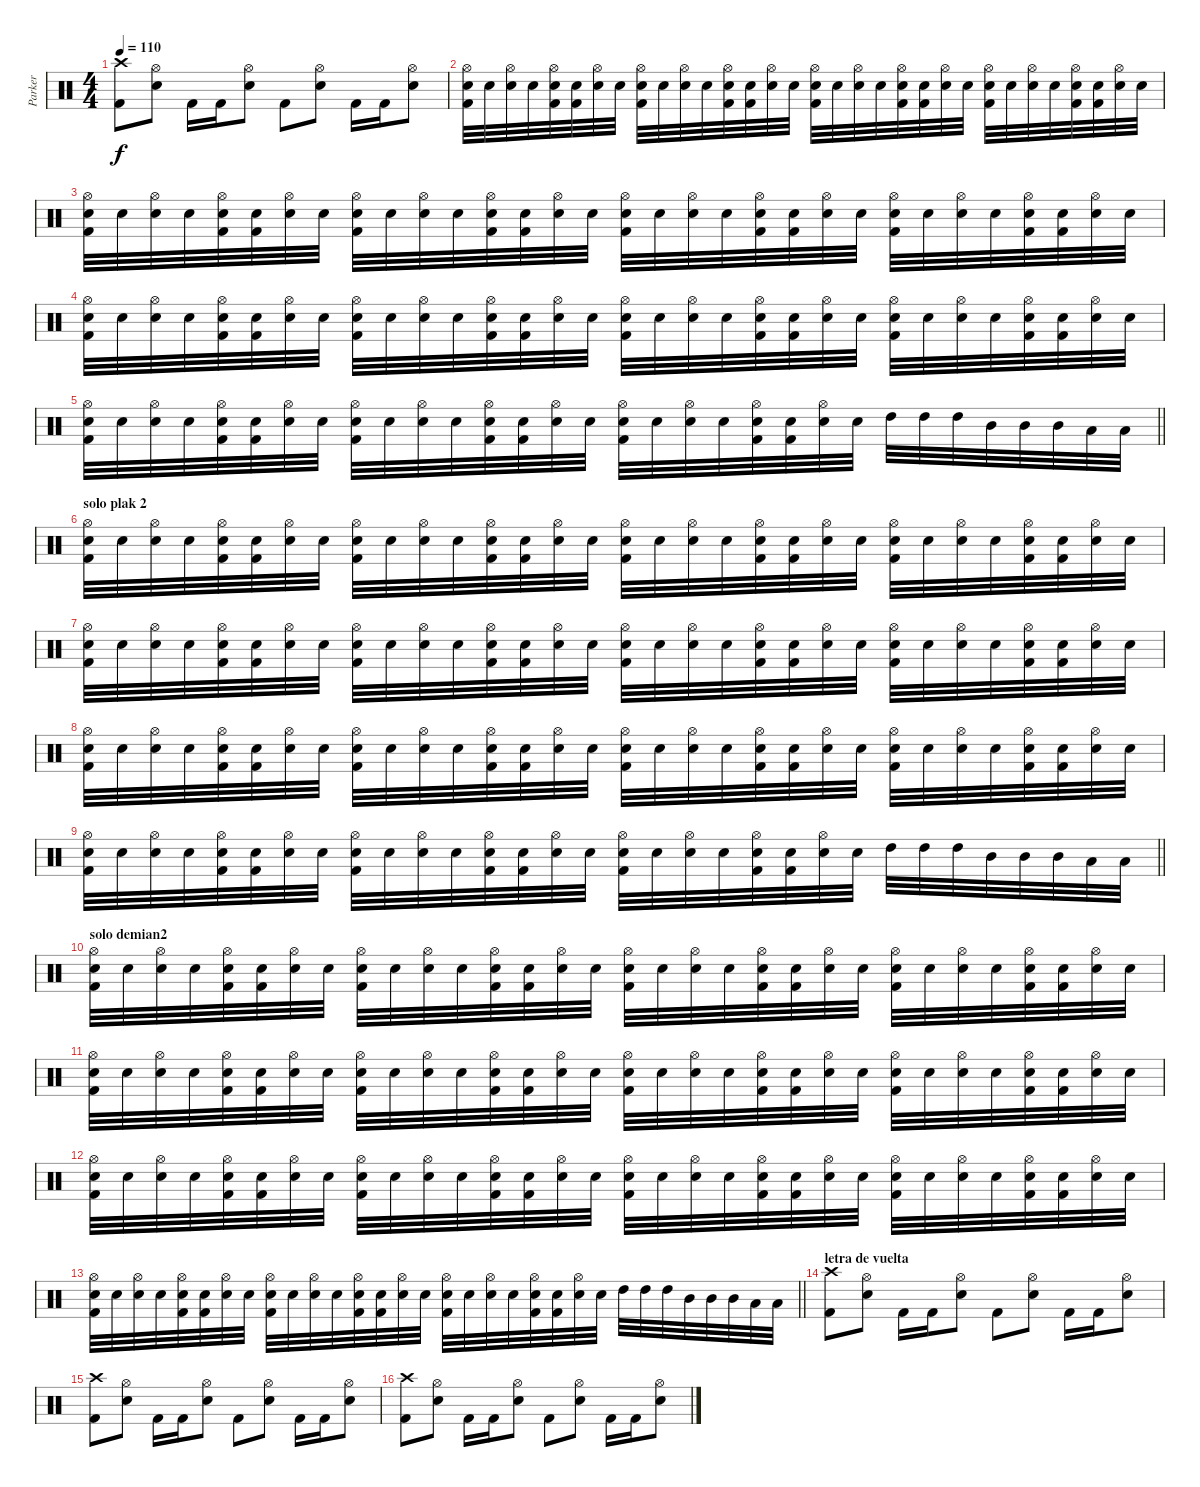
\track ("Parker" "Parker") {instrument percussion}
\staff {score}
\articulation defaults
\ts (4 4)
\tempo 110
\clef neutral
\ks c
("Crash high (hit)" "Kick (hit) 2").8{dy f} ("Hi-Hat (open)" "Electric Snare (hit)").8 "Kick (hit) 2".16 "Kick (hit) 2".16 ("Hi-Hat (open)" "Electric Snare (hit)").8 "Kick (hit) 2".8 ("Hi-Hat (open)" "Electric Snare (hit)").8 "Kick (hit) 2".16 "Kick (hit) 2".16 ("Hi-Hat (open)" "Electric Snare (hit)").8 |
("Hi-Hat (open)" "Kick (hit) 2" "Snare (hit)").32 "Snare (hit)".32 ("Hi-Hat (open)" "Electric Snare (hit)").32 "Snare (hit)".32 ("Hi-Hat (open)" "Kick (hit) 2" "Snare (hit)").32 ("Kick (hit) 2" "Snare (hit)").32 ("Hi-Hat (open)" "Electric Snare (hit)").32 "Snare (hit)".32 ("Hi-Hat (open)" "Kick (hit) 2" "Snare (hit)").32 "Snare (hit)".32 ("Hi-Hat (open)" "Electric Snare (hit)").32 "Snare (hit)".32 ("Hi-Hat (open)" "Kick (hit) 2" "Snare (hit)").32 ("Kick (hit) 2" "Snare (hit)").32 ("Hi-Hat (open)" "Electric Snare (hit)").32 "Snare (hit)".32 ("Hi-Hat (open)" "Kick (hit) 2" "Snare (hit)").32 "Snare (hit)".32 ("Hi-Hat (open)" "Electric Snare (hit)").32 "Snare (hit)".32 ("Hi-Hat (open)" "Kick (hit) 2" "Snare (hit)").32 ("Kick (hit) 2" "Snare (hit)").32 ("Hi-Hat (open)" "Electric Snare (hit)").32 "Snare (hit)".32 ("Hi-Hat (open)" "Kick (hit) 2" "Snare (hit)").32 "Snare (hit)".32 ("Hi-Hat (open)" "Electric Snare (hit)").32 "Snare (hit)".32 ("Hi-Hat (open)" "Kick (hit) 2" "Snare (hit)").32 ("Kick (hit) 2" "Snare (hit)").32 ("Hi-Hat (open)" "Electric Snare (hit)").32 "Snare (hit)".32 |
("Hi-Hat (open)" "Kick (hit) 2" "Snare (hit)").32 "Snare (hit)".32 ("Hi-Hat (open)" "Electric Snare (hit)").32 "Snare (hit)".32 ("Hi-Hat (open)" "Kick (hit) 2" "Snare (hit)").32 ("Kick (hit) 2" "Snare (hit)").32 ("Hi-Hat (open)" "Electric Snare (hit)").32 "Snare (hit)".32 ("Hi-Hat (open)" "Kick (hit) 2" "Snare (hit)").32 "Snare (hit)".32 ("Hi-Hat (open)" "Electric Snare (hit)").32 "Snare (hit)".32 ("Hi-Hat (open)" "Kick (hit) 2" "Snare (hit)").32 ("Kick (hit) 2" "Snare (hit)").32 ("Hi-Hat (open)" "Electric Snare (hit)").32 "Snare (hit)".32 ("Hi-Hat (open)" "Kick (hit) 2" "Snare (hit)").32 "Snare (hit)".32 ("Hi-Hat (open)" "Electric Snare (hit)").32 "Snare (hit)".32 ("Hi-Hat (open)" "Kick (hit) 2" "Snare (hit)").32 ("Kick (hit) 2" "Snare (hit)").32 ("Hi-Hat (open)" "Electric Snare (hit)").32 "Snare (hit)".32 ("Hi-Hat (open)" "Kick (hit) 2" "Snare (hit)").32 "Snare (hit)".32 ("Hi-Hat (open)" "Electric Snare (hit)").32 "Snare (hit)".32 ("Hi-Hat (open)" "Kick (hit) 2" "Snare (hit)").32 ("Kick (hit) 2" "Snare (hit)").32 ("Hi-Hat (open)" "Electric Snare (hit)").32 "Snare (hit)".32 |
("Hi-Hat (open)" "Kick (hit) 2" "Snare (hit)").32 "Snare (hit)".32 ("Hi-Hat (open)" "Electric Snare (hit)").32 "Snare (hit)".32 ("Hi-Hat (open)" "Kick (hit) 2" "Snare (hit)").32 ("Kick (hit) 2" "Snare (hit)").32 ("Hi-Hat (open)" "Electric Snare (hit)").32 "Snare (hit)".32 ("Hi-Hat (open)" "Kick (hit) 2" "Snare (hit)").32 "Snare (hit)".32 ("Hi-Hat (open)" "Electric Snare (hit)").32 "Snare (hit)".32 ("Hi-Hat (open)" "Kick (hit) 2" "Snare (hit)").32 ("Kick (hit) 2" "Snare (hit)").32 ("Hi-Hat (open)" "Electric Snare (hit)").32 "Snare (hit)".32 ("Hi-Hat (open)" "Kick (hit) 2" "Snare (hit)").32 "Snare (hit)".32 ("Hi-Hat (open)" "Electric Snare (hit)").32 "Snare (hit)".32 ("Hi-Hat (open)" "Kick (hit) 2" "Snare (hit)").32 ("Kick (hit) 2" "Snare (hit)").32 ("Hi-Hat (open)" "Electric Snare (hit)").32 "Snare (hit)".32 ("Hi-Hat (open)" "Kick (hit) 2" "Snare (hit)").32 "Snare (hit)".32 ("Hi-Hat (open)" "Electric Snare (hit)").32 "Snare (hit)".32 ("Hi-Hat (open)" "Kick (hit) 2" "Snare (hit)").32 ("Kick (hit) 2" "Snare (hit)").32 ("Hi-Hat (open)" "Electric Snare (hit)").32 "Snare (hit)".32 |
\barLineRight lightlight
("Hi-Hat (open)" "Kick (hit) 2" "Snare (hit)").32 "Snare (hit)".32 ("Hi-Hat (open)" "Electric Snare (hit)").32 "Snare (hit)".32 ("Hi-Hat (open)" "Kick (hit) 2" "Snare (hit)").32 ("Kick (hit) 2" "Snare (hit)").32 ("Hi-Hat (open)" "Electric Snare (hit)").32 "Snare (hit)".32 ("Hi-Hat (open)" "Kick (hit) 2" "Snare (hit)").32 "Snare (hit)".32 ("Hi-Hat (open)" "Electric Snare (hit)").32 "Snare (hit)".32 ("Hi-Hat (open)" "Kick (hit) 2" "Snare (hit)").32 ("Kick (hit) 2" "Snare (hit)").32 ("Hi-Hat (open)" "Electric Snare (hit)").32 "Snare (hit)".32 ("Hi-Hat (open)" "Kick (hit) 2" "Snare (hit)").32 "Snare (hit)".32 ("Hi-Hat (open)" "Electric Snare (hit)").32 "Snare (hit)".32 ("Hi-Hat (open)" "Kick (hit) 2" "Snare (hit)").32 ("Kick (hit) 2" "Snare (hit)").32 ("Hi-Hat (open)" "Electric Snare (hit)").32 "Snare (hit)".32 "High Tom (hit)".32 "High Tom (hit)".32 "High Tom (hit)".32 "Mid Tom (hit)".32 "Mid Tom (hit)".32 "Mid Tom (hit)".32 "Low Tom (hit)".32 "Low Tom (hit)".32 |
\section ("" "solo plak 2")
("Hi-Hat (open)" "Kick (hit) 2" "Snare (hit)").32 "Snare (hit)".32 ("Hi-Hat (open)" "Electric Snare (hit)").32 "Snare (hit)".32 ("Hi-Hat (open)" "Kick (hit) 2" "Snare (hit)").32 ("Kick (hit) 2" "Snare (hit)").32 ("Hi-Hat (open)" "Electric Snare (hit)").32 "Snare (hit)".32 ("Hi-Hat (open)" "Kick (hit) 2" "Snare (hit)").32 "Snare (hit)".32 ("Hi-Hat (open)" "Electric Snare (hit)").32 "Snare (hit)".32 ("Hi-Hat (open)" "Kick (hit) 2" "Snare (hit)").32 ("Kick (hit) 2" "Snare (hit)").32 ("Hi-Hat (open)" "Electric Snare (hit)").32 "Snare (hit)".32 ("Hi-Hat (open)" "Kick (hit) 2" "Snare (hit)").32 "Snare (hit)".32 ("Hi-Hat (open)" "Electric Snare (hit)").32 "Snare (hit)".32 ("Hi-Hat (open)" "Kick (hit) 2" "Snare (hit)").32 ("Kick (hit) 2" "Snare (hit)").32 ("Hi-Hat (open)" "Electric Snare (hit)").32 "Snare (hit)".32 ("Hi-Hat (open)" "Kick (hit) 2" "Snare (hit)").32 "Snare (hit)".32 ("Hi-Hat (open)" "Electric Snare (hit)").32 "Snare (hit)".32 ("Hi-Hat (open)" "Kick (hit) 2" "Snare (hit)").32 ("Kick (hit) 2" "Snare (hit)").32 ("Hi-Hat (open)" "Electric Snare (hit)").32 "Snare (hit)".32 |
("Hi-Hat (open)" "Kick (hit) 2" "Snare (hit)").32 "Snare (hit)".32 ("Hi-Hat (open)" "Electric Snare (hit)").32 "Snare (hit)".32 ("Hi-Hat (open)" "Kick (hit) 2" "Snare (hit)").32 ("Kick (hit) 2" "Snare (hit)").32 ("Hi-Hat (open)" "Electric Snare (hit)").32 "Snare (hit)".32 ("Hi-Hat (open)" "Kick (hit) 2" "Snare (hit)").32 "Snare (hit)".32 ("Hi-Hat (open)" "Electric Snare (hit)").32 "Snare (hit)".32 ("Hi-Hat (open)" "Kick (hit) 2" "Snare (hit)").32 ("Kick (hit) 2" "Snare (hit)").32 ("Hi-Hat (open)" "Electric Snare (hit)").32 "Snare (hit)".32 ("Hi-Hat (open)" "Kick (hit) 2" "Snare (hit)").32 "Snare (hit)".32 ("Hi-Hat (open)" "Electric Snare (hit)").32 "Snare (hit)".32 ("Hi-Hat (open)" "Kick (hit) 2" "Snare (hit)").32 ("Kick (hit) 2" "Snare (hit)").32 ("Hi-Hat (open)" "Electric Snare (hit)").32 "Snare (hit)".32 ("Hi-Hat (open)" "Kick (hit) 2" "Snare (hit)").32 "Snare (hit)".32 ("Hi-Hat (open)" "Electric Snare (hit)").32 "Snare (hit)".32 ("Hi-Hat (open)" "Kick (hit) 2" "Snare (hit)").32 ("Kick (hit) 2" "Snare (hit)").32 ("Hi-Hat (open)" "Electric Snare (hit)").32 "Snare (hit)".32 |
("Hi-Hat (open)" "Kick (hit) 2" "Snare (hit)").32 "Snare (hit)".32 ("Hi-Hat (open)" "Electric Snare (hit)").32 "Snare (hit)".32 ("Hi-Hat (open)" "Kick (hit) 2" "Snare (hit)").32 ("Kick (hit) 2" "Snare (hit)").32 ("Hi-Hat (open)" "Electric Snare (hit)").32 "Snare (hit)".32 ("Hi-Hat (open)" "Kick (hit) 2" "Snare (hit)").32 "Snare (hit)".32 ("Hi-Hat (open)" "Electric Snare (hit)").32 "Snare (hit)".32 ("Hi-Hat (open)" "Kick (hit) 2" "Snare (hit)").32 ("Kick (hit) 2" "Snare (hit)").32 ("Hi-Hat (open)" "Electric Snare (hit)").32 "Snare (hit)".32 ("Hi-Hat (open)" "Kick (hit) 2" "Snare (hit)").32 "Snare (hit)".32 ("Hi-Hat (open)" "Electric Snare (hit)").32 "Snare (hit)".32 ("Hi-Hat (open)" "Kick (hit) 2" "Snare (hit)").32 ("Kick (hit) 2" "Snare (hit)").32 ("Hi-Hat (open)" "Electric Snare (hit)").32 "Snare (hit)".32 ("Hi-Hat (open)" "Kick (hit) 2" "Snare (hit)").32 "Snare (hit)".32 ("Hi-Hat (open)" "Electric Snare (hit)").32 "Snare (hit)".32 ("Hi-Hat (open)" "Kick (hit) 2" "Snare (hit)").32 ("Kick (hit) 2" "Snare (hit)").32 ("Hi-Hat (open)" "Electric Snare (hit)").32 "Snare (hit)".32 |
\barLineRight lightlight
("Hi-Hat (open)" "Kick (hit) 2" "Snare (hit)").32 "Snare (hit)".32 ("Hi-Hat (open)" "Electric Snare (hit)").32 "Snare (hit)".32 ("Hi-Hat (open)" "Kick (hit) 2" "Snare (hit)").32 ("Kick (hit) 2" "Snare (hit)").32 ("Hi-Hat (open)" "Electric Snare (hit)").32 "Snare (hit)".32 ("Hi-Hat (open)" "Kick (hit) 2" "Snare (hit)").32 "Snare (hit)".32 ("Hi-Hat (open)" "Electric Snare (hit)").32 "Snare (hit)".32 ("Hi-Hat (open)" "Kick (hit) 2" "Snare (hit)").32 ("Kick (hit) 2" "Snare (hit)").32 ("Hi-Hat (open)" "Electric Snare (hit)").32 "Snare (hit)".32 ("Hi-Hat (open)" "Kick (hit) 2" "Snare (hit)").32 "Snare (hit)".32 ("Hi-Hat (open)" "Electric Snare (hit)").32 "Snare (hit)".32 ("Hi-Hat (open)" "Kick (hit) 2" "Snare (hit)").32 ("Kick (hit) 2" "Snare (hit)").32 ("Hi-Hat (open)" "Electric Snare (hit)").32 "Snare (hit)".32 "High Tom (hit)".32 "High Tom (hit)".32 "High Tom (hit)".32 "Mid Tom (hit)".32 "Mid Tom (hit)".32 "Mid Tom (hit)".32 "Low Tom (hit)".32 "Low Tom (hit)".32 |
\section ("" "solo demian2")
("Hi-Hat (open)" "Kick (hit) 2" "Snare (hit)").32 "Snare (hit)".32 ("Hi-Hat (open)" "Electric Snare (hit)").32 "Snare (hit)".32 ("Hi-Hat (open)" "Kick (hit) 2" "Snare (hit)").32 ("Kick (hit) 2" "Snare (hit)").32 ("Hi-Hat (open)" "Electric Snare (hit)").32 "Snare (hit)".32 ("Hi-Hat (open)" "Kick (hit) 2" "Snare (hit)").32 "Snare (hit)".32 ("Hi-Hat (open)" "Electric Snare (hit)").32 "Snare (hit)".32 ("Hi-Hat (open)" "Kick (hit) 2" "Snare (hit)").32 ("Kick (hit) 2" "Snare (hit)").32 ("Hi-Hat (open)" "Electric Snare (hit)").32 "Snare (hit)".32 ("Hi-Hat (open)" "Kick (hit) 2" "Snare (hit)").32 "Snare (hit)".32 ("Hi-Hat (open)" "Electric Snare (hit)").32 "Snare (hit)".32 ("Hi-Hat (open)" "Kick (hit) 2" "Snare (hit)").32 ("Kick (hit) 2" "Snare (hit)").32 ("Hi-Hat (open)" "Electric Snare (hit)").32 "Snare (hit)".32 ("Hi-Hat (open)" "Kick (hit) 2" "Snare (hit)").32 "Snare (hit)".32 ("Hi-Hat (open)" "Electric Snare (hit)").32 "Snare (hit)".32 ("Hi-Hat (open)" "Kick (hit) 2" "Snare (hit)").32 ("Kick (hit) 2" "Snare (hit)").32 ("Hi-Hat (open)" "Electric Snare (hit)").32 "Snare (hit)".32 |
("Hi-Hat (open)" "Kick (hit) 2" "Snare (hit)").32 "Snare (hit)".32 ("Hi-Hat (open)" "Electric Snare (hit)").32 "Snare (hit)".32 ("Hi-Hat (open)" "Kick (hit) 2" "Snare (hit)").32 ("Kick (hit) 2" "Snare (hit)").32 ("Hi-Hat (open)" "Electric Snare (hit)").32 "Snare (hit)".32 ("Hi-Hat (open)" "Kick (hit) 2" "Snare (hit)").32 "Snare (hit)".32 ("Hi-Hat (open)" "Electric Snare (hit)").32 "Snare (hit)".32 ("Hi-Hat (open)" "Kick (hit) 2" "Snare (hit)").32 ("Kick (hit) 2" "Snare (hit)").32 ("Hi-Hat (open)" "Electric Snare (hit)").32 "Snare (hit)".32 ("Hi-Hat (open)" "Kick (hit) 2" "Snare (hit)").32 "Snare (hit)".32 ("Hi-Hat (open)" "Electric Snare (hit)").32 "Snare (hit)".32 ("Hi-Hat (open)" "Kick (hit) 2" "Snare (hit)").32 ("Kick (hit) 2" "Snare (hit)").32 ("Hi-Hat (open)" "Electric Snare (hit)").32 "Snare (hit)".32 ("Hi-Hat (open)" "Kick (hit) 2" "Snare (hit)").32 "Snare (hit)".32 ("Hi-Hat (open)" "Electric Snare (hit)").32 "Snare (hit)".32 ("Hi-Hat (open)" "Kick (hit) 2" "Snare (hit)").32 ("Kick (hit) 2" "Snare (hit)").32 ("Hi-Hat (open)" "Electric Snare (hit)").32 "Snare (hit)".32 |
("Hi-Hat (open)" "Kick (hit) 2" "Snare (hit)").32 "Snare (hit)".32 ("Hi-Hat (open)" "Electric Snare (hit)").32 "Snare (hit)".32 ("Hi-Hat (open)" "Kick (hit) 2" "Snare (hit)").32 ("Kick (hit) 2" "Snare (hit)").32 ("Hi-Hat (open)" "Electric Snare (hit)").32 "Snare (hit)".32 ("Hi-Hat (open)" "Kick (hit) 2" "Snare (hit)").32 "Snare (hit)".32 ("Hi-Hat (open)" "Electric Snare (hit)").32 "Snare (hit)".32 ("Hi-Hat (open)" "Kick (hit) 2" "Snare (hit)").32 ("Kick (hit) 2" "Snare (hit)").32 ("Hi-Hat (open)" "Electric Snare (hit)").32 "Snare (hit)".32 ("Hi-Hat (open)" "Kick (hit) 2" "Snare (hit)").32 "Snare (hit)".32 ("Hi-Hat (open)" "Electric Snare (hit)").32 "Snare (hit)".32 ("Hi-Hat (open)" "Kick (hit) 2" "Snare (hit)").32 ("Kick (hit) 2" "Snare (hit)").32 ("Hi-Hat (open)" "Electric Snare (hit)").32 "Snare (hit)".32 ("Hi-Hat (open)" "Kick (hit) 2" "Snare (hit)").32 "Snare (hit)".32 ("Hi-Hat (open)" "Electric Snare (hit)").32 "Snare (hit)".32 ("Hi-Hat (open)" "Kick (hit) 2" "Snare (hit)").32 ("Kick (hit) 2" "Snare (hit)").32 ("Hi-Hat (open)" "Electric Snare (hit)").32 "Snare (hit)".32 |
\barLineRight lightlight
("Hi-Hat (open)" "Kick (hit) 2" "Snare (hit)").32 "Snare (hit)".32 ("Hi-Hat (open)" "Electric Snare (hit)").32 "Snare (hit)".32 ("Hi-Hat (open)" "Kick (hit) 2" "Snare (hit)").32 ("Kick (hit) 2" "Snare (hit)").32 ("Hi-Hat (open)" "Electric Snare (hit)").32 "Snare (hit)".32 ("Hi-Hat (open)" "Kick (hit) 2" "Snare (hit)").32 "Snare (hit)".32 ("Hi-Hat (open)" "Electric Snare (hit)").32 "Snare (hit)".32 ("Hi-Hat (open)" "Kick (hit) 2" "Snare (hit)").32 ("Kick (hit) 2" "Snare (hit)").32 ("Hi-Hat (open)" "Electric Snare (hit)").32 "Snare (hit)".32 ("Hi-Hat (open)" "Kick (hit) 2" "Snare (hit)").32 "Snare (hit)".32 ("Hi-Hat (open)" "Electric Snare (hit)").32 "Snare (hit)".32 ("Hi-Hat (open)" "Kick (hit) 2" "Snare (hit)").32 ("Kick (hit) 2" "Snare (hit)").32 ("Hi-Hat (open)" "Electric Snare (hit)").32 "Snare (hit)".32 "High Tom (hit)".32 "High Tom (hit)".32 "High Tom (hit)".32 "Mid Tom (hit)".32 "Mid Tom (hit)".32 "Mid Tom (hit)".32 "Low Tom (hit)".32 "Low Tom (hit)".32 |
\section ("" "letra de vuelta")
("Crash high (hit)" "Kick (hit) 2").8 ("Hi-Hat (open)" "Electric Snare (hit)").8 "Kick (hit) 2".16 "Kick (hit) 2".16 ("Hi-Hat (open)" "Electric Snare (hit)").8 "Kick (hit) 2".8 ("Hi-Hat (open)" "Electric Snare (hit)").8 "Kick (hit) 2".16 "Kick (hit) 2".16 ("Hi-Hat (open)" "Electric Snare (hit)").8 |
("Crash high (hit)" "Kick (hit) 2").8 ("Hi-Hat (open)" "Electric Snare (hit)").8 "Kick (hit) 2".16 "Kick (hit) 2".16 ("Hi-Hat (open)" "Electric Snare (hit)").8 "Kick (hit) 2".8 ("Hi-Hat (open)" "Electric Snare (hit)").8 "Kick (hit) 2".16 "Kick (hit) 2".16 ("Hi-Hat (open)" "Electric Snare (hit)").8 |
("Crash high (hit)" "Kick (hit) 2").8 ("Hi-Hat (open)" "Electric Snare (hit)").8 "Kick (hit) 2".16 "Kick (hit) 2".16 ("Hi-Hat (open)" "Electric Snare (hit)").8 "Kick (hit) 2".8 ("Hi-Hat (open)" "Electric Snare (hit)").8 "Kick (hit) 2".16 "Kick (hit) 2".16 ("Hi-Hat (open)" "Electric Snare (hit)").8
